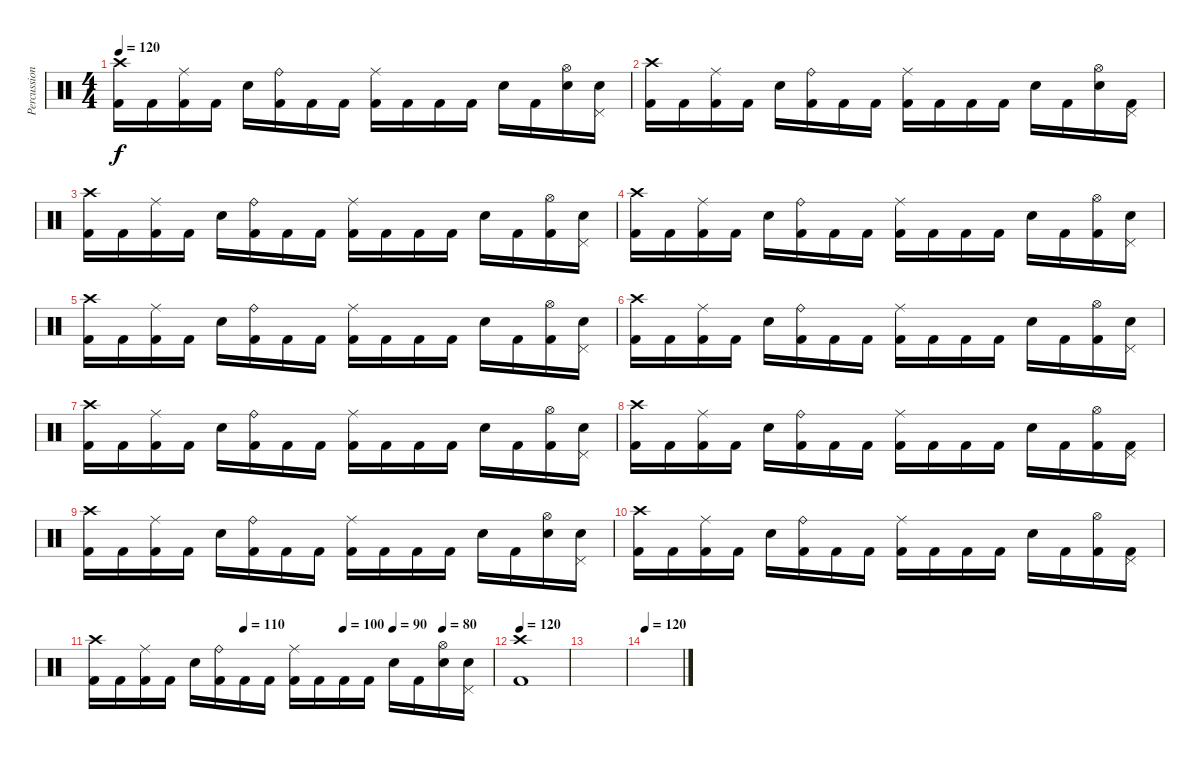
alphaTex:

\track ("Percussioni" "Percussion") {instrument percussion}
\staff {score}
\articulation defaults
\ts (4 4)
\tempo 120
\clef neutral
\ks c
("Crash high (hit)" "Kick (hit) 2").16{dy f} "Kick (hit) 2".16 ("Ride (middle)" "Kick (hit) 2").16 "Kick (hit) 2".16 "Electric Snare (hit)".16 ("Ride (bell)" "Kick (hit) 2").16 "Kick (hit) 2".16 "Kick (hit) 2".16 ("Ride (middle)" "Kick (hit) 2").16 "Kick (hit) 2".16 "Kick (hit) 2".16 "Kick (hit) 2".16 "Electric Snare (hit)".16 "Kick (hit) 2".16 ("Hi-Hat (open)" "Electric Snare (hit)").16 ("Pedal Hi-Hat (hit)" "Electric Snare (hit)").16 |
("Crash high (hit)" "Kick (hit) 2").16 "Kick (hit) 2".16 ("Ride (middle)" "Kick (hit) 2").16 "Kick (hit) 2".16 "Electric Snare (hit)".16 ("Ride (bell)" "Kick (hit) 2").16 "Kick (hit) 2".16 "Kick (hit) 2".16 ("Ride (middle)" "Kick (hit) 2").16 "Kick (hit) 2".16 "Kick (hit) 2".16 "Kick (hit) 2".16 "Electric Snare (hit)".16 "Kick (hit) 2".16 ("Hi-Hat (open)" "Electric Snare (hit)").16 ("Pedal Hi-Hat (hit)" "Kick (hit) 2").16 |
("Crash high (hit)" "Kick (hit) 2").16 "Kick (hit) 2".16 ("Ride (middle)" "Kick (hit) 2").16 "Kick (hit) 2".16 "Electric Snare (hit)".16 ("Ride (bell)" "Kick (hit) 2").16 "Kick (hit) 2".16 "Kick (hit) 2".16 ("Ride (middle)" "Kick (hit) 2").16 "Kick (hit) 2".16 "Kick (hit) 2".16 "Kick (hit) 2".16 "Electric Snare (hit)".16 "Kick (hit) 2".16 ("Hi-Hat (open)" "Kick (hit) 2").16 ("Pedal Hi-Hat (hit)" "Electric Snare (hit)").16 |
("Crash high (hit)" "Kick (hit) 2").16 "Kick (hit) 2".16 ("Ride (middle)" "Kick (hit) 2").16 "Kick (hit) 2".16 "Electric Snare (hit)".16 ("Ride (bell)" "Kick (hit) 2").16 "Kick (hit) 2".16 "Kick (hit) 2".16 ("Ride (middle)" "Kick (hit) 2").16 "Kick (hit) 2".16 "Kick (hit) 2".16 "Kick (hit) 2".16 "Electric Snare (hit)".16 "Kick (hit) 2".16 ("Hi-Hat (open)" "Kick (hit) 2").16 ("Pedal Hi-Hat (hit)" "Electric Snare (hit)").16 |
("Crash high (hit)" "Kick (hit) 2").16 "Kick (hit) 2".16 ("Ride (middle)" "Kick (hit) 2").16 "Kick (hit) 2".16 "Electric Snare (hit)".16 ("Ride (bell)" "Kick (hit) 2").16 "Kick (hit) 2".16 "Kick (hit) 2".16 ("Ride (middle)" "Kick (hit) 2").16 "Kick (hit) 2".16 "Kick (hit) 2".16 "Kick (hit) 2".16 "Electric Snare (hit)".16 "Kick (hit) 2".16 ("Hi-Hat (open)" "Kick (hit) 2").16 ("Pedal Hi-Hat (hit)" "Electric Snare (hit)").16 |
("Crash high (hit)" "Kick (hit) 2").16 "Kick (hit) 2".16 ("Ride (middle)" "Kick (hit) 2").16 "Kick (hit) 2".16 "Electric Snare (hit)".16 ("Ride (bell)" "Kick (hit) 2").16 "Kick (hit) 2".16 "Kick (hit) 2".16 ("Ride (middle)" "Kick (hit) 2").16 "Kick (hit) 2".16 "Kick (hit) 2".16 "Kick (hit) 2".16 "Electric Snare (hit)".16 "Kick (hit) 2".16 ("Hi-Hat (open)" "Kick (hit) 2").16 ("Pedal Hi-Hat (hit)" "Electric Snare (hit)").16 |
("Crash high (hit)" "Kick (hit) 2").16 "Kick (hit) 2".16 ("Ride (middle)" "Kick (hit) 2").16 "Kick (hit) 2".16 "Electric Snare (hit)".16 ("Ride (bell)" "Kick (hit) 2").16 "Kick (hit) 2".16 "Kick (hit) 2".16 ("Ride (middle)" "Kick (hit) 2").16 "Kick (hit) 2".16 "Kick (hit) 2".16 "Kick (hit) 2".16 "Electric Snare (hit)".16 "Kick (hit) 2".16 ("Hi-Hat (open)" "Kick (hit) 2").16 ("Pedal Hi-Hat (hit)" "Electric Snare (hit)").16 |
("Crash high (hit)" "Kick (hit) 2").16 "Kick (hit) 2".16 ("Ride (middle)" "Kick (hit) 2").16 "Kick (hit) 2".16 "Electric Snare (hit)".16 ("Ride (bell)" "Kick (hit) 2").16 "Kick (hit) 2".16 "Kick (hit) 2".16 ("Ride (middle)" "Kick (hit) 2").16 "Kick (hit) 2".16 "Kick (hit) 2".16 "Kick (hit) 2".16 "Electric Snare (hit)".16 "Kick (hit) 2".16 ("Hi-Hat (open)" "Kick (hit) 2").16 ("Pedal Hi-Hat (hit)" "Kick (hit) 2").16 |
("Crash high (hit)" "Kick (hit) 2").16 "Kick (hit) 2".16 ("Ride (middle)" "Kick (hit) 2").16 "Kick (hit) 2".16 "Electric Snare (hit)".16 ("Ride (bell)" "Kick (hit) 2").16 "Kick (hit) 2".16 "Kick (hit) 2".16 ("Ride (middle)" "Kick (hit) 2").16 "Kick (hit) 2".16 "Kick (hit) 2".16 "Kick (hit) 2".16 "Electric Snare (hit)".16 "Kick (hit) 2".16 ("Hi-Hat (open)" "Electric Snare (hit)").16 ("Pedal Hi-Hat (hit)" "Electric Snare (hit)").16 |
("Crash high (hit)" "Kick (hit) 2").16 "Kick (hit) 2".16 ("Ride (middle)" "Kick (hit) 2").16 "Kick (hit) 2".16 "Electric Snare (hit)".16 ("Ride (bell)" "Kick (hit) 2").16 "Kick (hit) 2".16 "Kick (hit) 2".16 ("Ride (middle)" "Kick (hit) 2").16 "Kick (hit) 2".16 "Kick (hit) 2".16 "Kick (hit) 2".16 "Electric Snare (hit)".16 "Kick (hit) 2".16 ("Hi-Hat (open)" "Kick (hit) 2").16 ("Pedal Hi-Hat (hit)" "Kick (hit) 2").16 |
\tempo (110 0.375)
\tempo (100 0.625)
\tempo (90 0.75)
\tempo (80 0.875)
("Crash high (hit)" "Kick (hit) 2").16 "Kick (hit) 2".16 ("Ride (middle)" "Kick (hit) 2").16 "Kick (hit) 2".16 "Electric Snare (hit)".16 ("Ride (bell)" "Kick (hit) 2").16 "Kick (hit) 2".16 "Kick (hit) 2".16 ("Ride (middle)" "Kick (hit) 2").16 "Kick (hit) 2".16 "Kick (hit) 2".16 "Kick (hit) 2".16 "Electric Snare (hit)".16 "Kick (hit) 2".16 ("Hi-Hat (open)" "Electric Snare (hit)").16 ("Pedal Hi-Hat (hit)" "Electric Snare (hit)").16 |
\tempo 120
("Crash high (hit)" "Kick (hit) 2").1 |
|
\tempo 120
